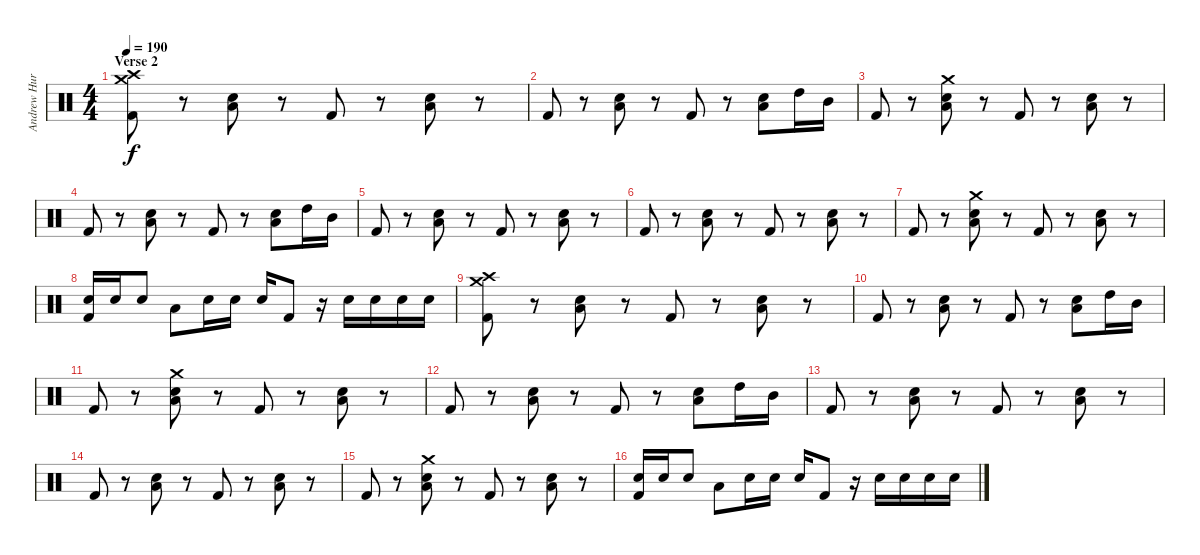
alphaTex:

\track ("Andrew Hurley (Drums)" "Andrew Hur") {instrument percussion}
\staff {score}
\articulation defaults
\ts (4 4)
\section ("" "Verse 2")
\tempo 190
\clef neutral
\ks c
("Crash medium (hit)" "Crash high (hit)" "Kick (hit) 2").8{dy f} r.8 ("Electric Snare (hit)" "Low Floor Tom (hit)").8 r.8 "Kick (hit) 2".8 r.8 ("Electric Snare (hit)" "Low Floor Tom (hit)").8 r.8 |
"Kick (hit) 2".8 r.8 ("Electric Snare (hit)" "Low Floor Tom (hit)").8 r.8 "Kick (hit) 2".8 r.8 ("Electric Snare (hit)" "Low Floor Tom (hit)").8 "High Tom (hit)".16 "Mid Tom (hit)".16 |
"Kick (hit) 2".8 r.8 ("Crash medium (hit)" "Electric Snare (hit)" "Low Floor Tom (hit)").8 r.8 "Kick (hit) 2".8 r.8 ("Electric Snare (hit)" "Low Floor Tom (hit)").8 r.8 |
"Kick (hit) 2".8 r.8 ("Electric Snare (hit)" "Low Floor Tom (hit)").8 r.8 "Kick (hit) 2".8 r.8 ("Electric Snare (hit)" "Low Floor Tom (hit)").8 "High Tom (hit)".16 "Mid Tom (hit)".16 |
"Kick (hit) 2".8 r.8 ("Electric Snare (hit)" "Low Floor Tom (hit)").8 r.8 "Kick (hit) 2".8 r.8 ("Electric Snare (hit)" "Low Floor Tom (hit)").8 r.8 |
"Kick (hit) 2".8 r.8 ("Electric Snare (hit)" "Low Floor Tom (hit)").8 r.8 "Kick (hit) 2".8 r.8 ("Electric Snare (hit)" "Low Floor Tom (hit)").8 r.8 |
"Kick (hit) 2".8 r.8 ("Crash medium (hit)" "Electric Snare (hit)" "Low Floor Tom (hit)").8 r.8 "Kick (hit) 2".8 r.8 ("Electric Snare (hit)" "Low Floor Tom (hit)").8 r.8 |
("Electric Snare (hit)" "Kick (hit) 2").16 "Electric Snare (hit)".16 "Electric Snare (hit)".8 "Low Floor Tom (hit)".8 "Electric Snare (hit)".16 "Electric Snare (hit)".16 "Electric Snare (hit)".16 "Kick (hit) 2".8 r.16 "Electric Snare (hit)".16 "Electric Snare (hit)".16 "Electric Snare (hit)".16 "Electric Snare (hit)".16 |
("Crash medium (hit)" "Crash high (hit)" "Kick (hit) 2").8 r.8 ("Electric Snare (hit)" "Low Floor Tom (hit)").8 r.8 "Kick (hit) 2".8 r.8 ("Electric Snare (hit)" "Low Floor Tom (hit)").8 r.8 |
"Kick (hit) 2".8 r.8 ("Electric Snare (hit)" "Low Floor Tom (hit)").8 r.8 "Kick (hit) 2".8 r.8 ("Electric Snare (hit)" "Low Floor Tom (hit)").8 "High Tom (hit)".16 "Mid Tom (hit)".16 |
"Kick (hit) 2".8 r.8 ("Crash medium (hit)" "Electric Snare (hit)" "Low Floor Tom (hit)").8 r.8 "Kick (hit) 2".8 r.8 ("Electric Snare (hit)" "Low Floor Tom (hit)").8 r.8 |
"Kick (hit) 2".8 r.8 ("Electric Snare (hit)" "Low Floor Tom (hit)").8 r.8 "Kick (hit) 2".8 r.8 ("Electric Snare (hit)" "Low Floor Tom (hit)").8 "High Tom (hit)".16 "Mid Tom (hit)".16 |
"Kick (hit) 2".8 r.8 ("Electric Snare (hit)" "Low Floor Tom (hit)").8 r.8 "Kick (hit) 2".8 r.8 ("Electric Snare (hit)" "Low Floor Tom (hit)").8 r.8 |
"Kick (hit) 2".8 r.8 ("Electric Snare (hit)" "Low Floor Tom (hit)").8 r.8 "Kick (hit) 2".8 r.8 ("Electric Snare (hit)" "Low Floor Tom (hit)").8 r.8 |
"Kick (hit) 2".8 r.8 ("Crash medium (hit)" "Electric Snare (hit)" "Low Floor Tom (hit)").8 r.8 "Kick (hit) 2".8 r.8 ("Electric Snare (hit)" "Low Floor Tom (hit)").8 r.8 |
("Electric Snare (hit)" "Kick (hit) 2").16 "Electric Snare (hit)".16 "Electric Snare (hit)".8 "Low Floor Tom (hit)".8 "Electric Snare (hit)".16 "Electric Snare (hit)".16 "Electric Snare (hit)".16 "Kick (hit) 2".8 r.16 "Electric Snare (hit)".16 "Electric Snare (hit)".16 "Electric Snare (hit)".16 "Electric Snare (hit)".16
